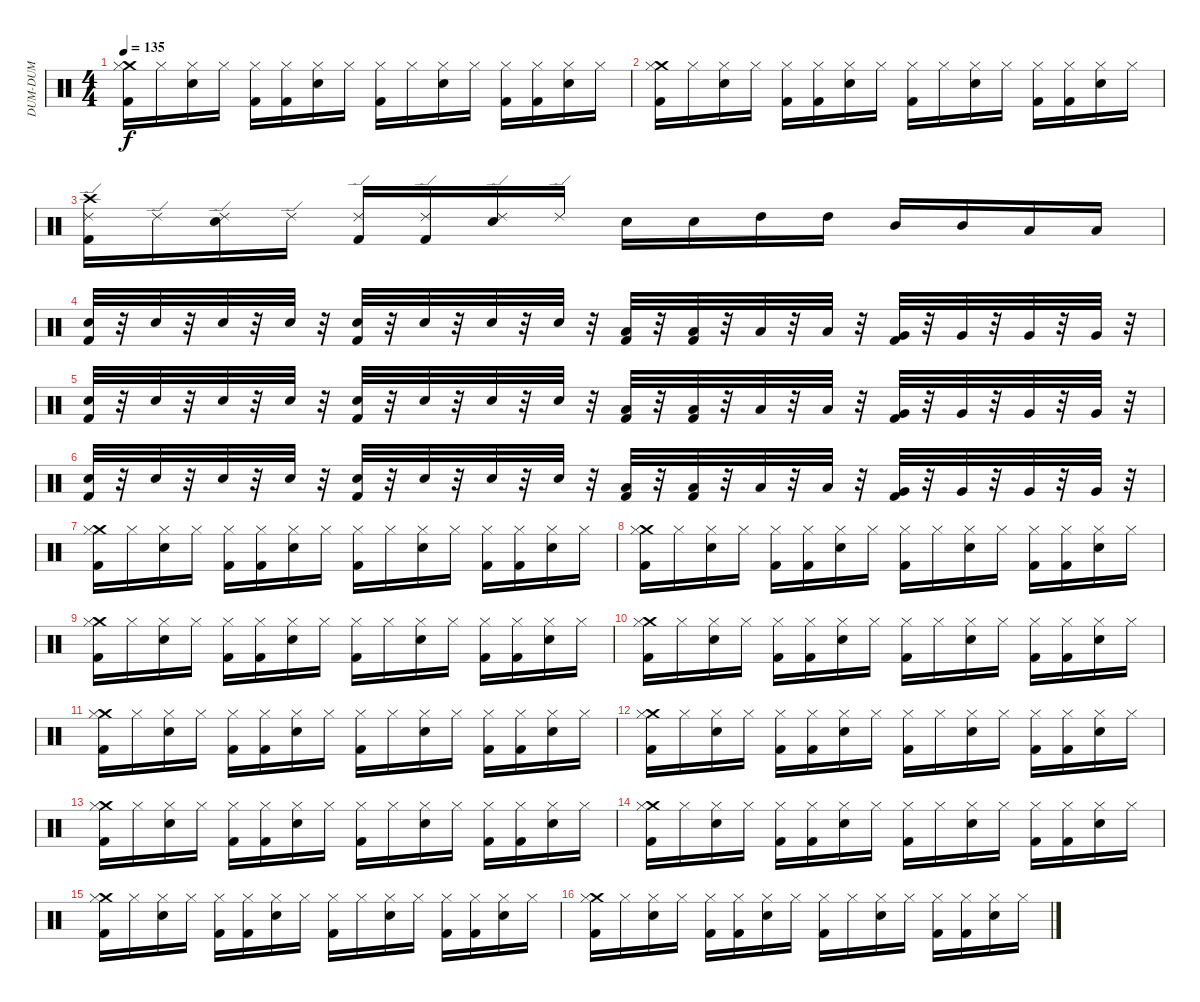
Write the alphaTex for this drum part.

\track ("DUM-DUM" "DUM-DUM") {instrument percussion}
\staff {score}
\articulation defaults
\ts (4 4)
\tempo 135
\clef neutral
\ks c
("Crash medium (hit)" "Hi-Hat (closed)" "Kick (hit) 2").16{dy f} "Hi-Hat (closed)".16 ("Hi-Hat (closed)" "Snare (hit) 2").16 "Hi-Hat (closed)".16 ("Hi-Hat (closed)" "Kick (hit) 2").16 ("Hi-Hat (closed)" "Kick (hit) 2").16 ("Hi-Hat (closed)" "Snare (hit) 2").16 "Hi-Hat (closed)".16 ("Hi-Hat (closed)" "Kick (hit) 2").16 "Hi-Hat (closed)".16 ("Hi-Hat (closed)" "Snare (hit) 2").16 "Hi-Hat (closed)".16 ("Hi-Hat (closed)" "Kick (hit) 2").16 ("Hi-Hat (closed)" "Kick (hit) 2").16 ("Hi-Hat (closed)" "Snare (hit) 2").16 "Hi-Hat (closed)".16 |
("Crash medium (hit)" "Hi-Hat (closed)" "Kick (hit) 2").16 "Hi-Hat (closed)".16 ("Hi-Hat (closed)" "Snare (hit) 2").16 "Hi-Hat (closed)".16 ("Hi-Hat (closed)" "Kick (hit) 2").16 ("Hi-Hat (closed)" "Kick (hit) 2").16 ("Hi-Hat (closed)" "Snare (hit) 2").16 "Hi-Hat (closed)".16 ("Hi-Hat (closed)" "Kick (hit) 2").16 "Hi-Hat (closed)".16 ("Hi-Hat (closed)" "Snare (hit) 2").16 "Hi-Hat (closed)".16 ("Hi-Hat (closed)" "Kick (hit) 2").16 ("Hi-Hat (closed)" "Kick (hit) 2").16 ("Hi-Hat (closed)" "Snare (hit) 2").16 "Hi-Hat (closed)".16 |
("Ride (edge) 2" "Crash high (hit)" "Kick (hit) 2").16 "Ride (edge) 2".16 ("Ride (edge) 2" "Snare (hit) 2").16 "Ride (edge) 2".16 ("Ride (edge) 2" "Kick (hit) 2").16 ("Ride (edge) 2" "Kick (hit) 2").16 ("Ride (edge) 2" "Snare (hit) 2").16 "Ride (edge) 2".16 "Snare (hit) 2".16 "Snare (hit) 2".16 "High Tom (hit)".16 "High Tom (hit)".16 "Mid Tom (hit)".16 "Mid Tom (hit)".16 "Low Tom (hit)".16 "Low Tom (hit)".16 |
("Kick (hit) 2" "Electric Snare (hit)").32 r.32 "Electric Snare (hit)".32 r.32 "Electric Snare (hit)".32 r.32 "Electric Snare (hit)".32 r.32 ("Kick (hit) 2" "Electric Snare (hit)").32 r.32 "Electric Snare (hit)".32 r.32 "Electric Snare (hit)".32 r.32 "Electric Snare (hit)".32 r.32 ("Kick (hit) 2" "Low Tom (hit)").32 r.32 ("Kick (hit) 2" "Low Tom (hit)").32 r.32 "Low Tom (hit)".32 r.32 "Low Tom (hit)".32 r.32 ("Kick (hit) 2" "Very Low Tom (hit)").32 r.32 "Very Low Tom (hit)".32 r.32 "Very Low Tom (hit)".32 r.32 "Very Low Tom (hit)".32 r.32 |
("Kick (hit) 2" "Electric Snare (hit)").32 r.32 "Electric Snare (hit)".32 r.32 "Electric Snare (hit)".32 r.32 "Electric Snare (hit)".32 r.32 ("Kick (hit) 2" "Electric Snare (hit)").32 r.32 "Electric Snare (hit)".32 r.32 "Electric Snare (hit)".32 r.32 "Electric Snare (hit)".32 r.32 ("Kick (hit) 2" "Low Tom (hit)").32 r.32 ("Kick (hit) 2" "Low Tom (hit)").32 r.32 "Low Tom (hit)".32 r.32 "Low Tom (hit)".32 r.32 ("Kick (hit) 2" "Very Low Tom (hit)").32 r.32 "Very Low Tom (hit)".32 r.32 "Very Low Tom (hit)".32 r.32 "Very Low Tom (hit)".32 r.32 |
("Kick (hit) 2" "Electric Snare (hit)").32 r.32 "Electric Snare (hit)".32 r.32 "Electric Snare (hit)".32 r.32 "Electric Snare (hit)".32 r.32 ("Kick (hit) 2" "Electric Snare (hit)").32 r.32 "Electric Snare (hit)".32 r.32 "Electric Snare (hit)".32 r.32 "Electric Snare (hit)".32 r.32 ("Kick (hit) 2" "Low Tom (hit)").32 r.32 ("Kick (hit) 2" "Low Tom (hit)").32 r.32 "Low Tom (hit)".32 r.32 "Low Tom (hit)".32 r.32 ("Kick (hit) 2" "Very Low Tom (hit)").32 r.32 "Very Low Tom (hit)".32 r.32 "Very Low Tom (hit)".32 r.32 "Very Low Tom (hit)".32 r.32 |
("Crash medium (hit)" "Hi-Hat (closed)" "Kick (hit) 2").16 "Hi-Hat (closed)".16 ("Hi-Hat (closed)" "Snare (hit) 2").16 "Hi-Hat (closed)".16 ("Hi-Hat (closed)" "Kick (hit) 2").16 ("Hi-Hat (closed)" "Kick (hit) 2").16 ("Hi-Hat (closed)" "Snare (hit) 2").16 "Hi-Hat (closed)".16 ("Hi-Hat (closed)" "Kick (hit) 2").16 "Hi-Hat (closed)".16 ("Hi-Hat (closed)" "Snare (hit) 2").16 "Hi-Hat (closed)".16 ("Hi-Hat (closed)" "Kick (hit) 2").16 ("Hi-Hat (closed)" "Kick (hit) 2").16 ("Hi-Hat (closed)" "Snare (hit) 2").16 "Hi-Hat (closed)".16 |
("Crash medium (hit)" "Hi-Hat (closed)" "Kick (hit) 2").16 "Hi-Hat (closed)".16 ("Hi-Hat (closed)" "Snare (hit) 2").16 "Hi-Hat (closed)".16 ("Hi-Hat (closed)" "Kick (hit) 2").16 ("Hi-Hat (closed)" "Kick (hit) 2").16 ("Hi-Hat (closed)" "Snare (hit) 2").16 "Hi-Hat (closed)".16 ("Hi-Hat (closed)" "Kick (hit) 2").16 "Hi-Hat (closed)".16 ("Hi-Hat (closed)" "Snare (hit) 2").16 "Hi-Hat (closed)".16 ("Hi-Hat (closed)" "Kick (hit) 2").16 ("Hi-Hat (closed)" "Kick (hit) 2").16 ("Hi-Hat (closed)" "Snare (hit) 2").16 "Hi-Hat (closed)".16 |
("Crash medium (hit)" "Hi-Hat (closed)" "Kick (hit) 2").16 "Hi-Hat (closed)".16 ("Hi-Hat (closed)" "Snare (hit) 2").16 "Hi-Hat (closed)".16 ("Hi-Hat (closed)" "Kick (hit) 2").16 ("Hi-Hat (closed)" "Kick (hit) 2").16 ("Hi-Hat (closed)" "Snare (hit) 2").16 "Hi-Hat (closed)".16 ("Hi-Hat (closed)" "Kick (hit) 2").16 "Hi-Hat (closed)".16 ("Hi-Hat (closed)" "Snare (hit) 2").16 "Hi-Hat (closed)".16 ("Hi-Hat (closed)" "Kick (hit) 2").16 ("Hi-Hat (closed)" "Kick (hit) 2").16 ("Hi-Hat (closed)" "Snare (hit) 2").16 "Hi-Hat (closed)".16 |
("Crash medium (hit)" "Hi-Hat (closed)" "Kick (hit) 2").16 "Hi-Hat (closed)".16 ("Hi-Hat (closed)" "Snare (hit) 2").16 "Hi-Hat (closed)".16 ("Hi-Hat (closed)" "Kick (hit) 2").16 ("Hi-Hat (closed)" "Kick (hit) 2").16 ("Hi-Hat (closed)" "Snare (hit) 2").16 "Hi-Hat (closed)".16 ("Hi-Hat (closed)" "Kick (hit) 2").16 "Hi-Hat (closed)".16 ("Hi-Hat (closed)" "Snare (hit) 2").16 "Hi-Hat (closed)".16 ("Hi-Hat (closed)" "Kick (hit) 2").16 ("Hi-Hat (closed)" "Kick (hit) 2").16 ("Hi-Hat (closed)" "Snare (hit) 2").16 "Hi-Hat (closed)".16 |
("Crash medium (hit)" "Hi-Hat (closed)" "Kick (hit) 2").16 "Hi-Hat (closed)".16 ("Hi-Hat (closed)" "Snare (hit) 2").16 "Hi-Hat (closed)".16 ("Hi-Hat (closed)" "Kick (hit) 2").16 ("Hi-Hat (closed)" "Kick (hit) 2").16 ("Hi-Hat (closed)" "Snare (hit) 2").16 "Hi-Hat (closed)".16 ("Hi-Hat (closed)" "Kick (hit) 2").16 "Hi-Hat (closed)".16 ("Hi-Hat (closed)" "Snare (hit) 2").16 "Hi-Hat (closed)".16 ("Hi-Hat (closed)" "Kick (hit) 2").16 ("Hi-Hat (closed)" "Kick (hit) 2").16 ("Hi-Hat (closed)" "Snare (hit) 2").16 "Hi-Hat (closed)".16 |
("Crash medium (hit)" "Hi-Hat (closed)" "Kick (hit) 2").16 "Hi-Hat (closed)".16 ("Hi-Hat (closed)" "Snare (hit) 2").16 "Hi-Hat (closed)".16 ("Hi-Hat (closed)" "Kick (hit) 2").16 ("Hi-Hat (closed)" "Kick (hit) 2").16 ("Hi-Hat (closed)" "Snare (hit) 2").16 "Hi-Hat (closed)".16 ("Hi-Hat (closed)" "Kick (hit) 2").16 "Hi-Hat (closed)".16 ("Hi-Hat (closed)" "Snare (hit) 2").16 "Hi-Hat (closed)".16 ("Hi-Hat (closed)" "Kick (hit) 2").16 ("Hi-Hat (closed)" "Kick (hit) 2").16 ("Hi-Hat (closed)" "Snare (hit) 2").16 "Hi-Hat (closed)".16 |
("Crash medium (hit)" "Hi-Hat (closed)" "Kick (hit) 2").16 "Hi-Hat (closed)".16 ("Hi-Hat (closed)" "Snare (hit) 2").16 "Hi-Hat (closed)".16 ("Hi-Hat (closed)" "Kick (hit) 2").16 ("Hi-Hat (closed)" "Kick (hit) 2").16 ("Hi-Hat (closed)" "Snare (hit) 2").16 "Hi-Hat (closed)".16 ("Hi-Hat (closed)" "Kick (hit) 2").16 "Hi-Hat (closed)".16 ("Hi-Hat (closed)" "Snare (hit) 2").16 "Hi-Hat (closed)".16 ("Hi-Hat (closed)" "Kick (hit) 2").16 ("Hi-Hat (closed)" "Kick (hit) 2").16 ("Hi-Hat (closed)" "Snare (hit) 2").16 "Hi-Hat (closed)".16 |
("Crash medium (hit)" "Hi-Hat (closed)" "Kick (hit) 2").16 "Hi-Hat (closed)".16 ("Hi-Hat (closed)" "Snare (hit) 2").16 "Hi-Hat (closed)".16 ("Hi-Hat (closed)" "Kick (hit) 2").16 ("Hi-Hat (closed)" "Kick (hit) 2").16 ("Hi-Hat (closed)" "Snare (hit) 2").16 "Hi-Hat (closed)".16 ("Hi-Hat (closed)" "Kick (hit) 2").16 "Hi-Hat (closed)".16 ("Hi-Hat (closed)" "Snare (hit) 2").16 "Hi-Hat (closed)".16 ("Hi-Hat (closed)" "Kick (hit) 2").16 ("Hi-Hat (closed)" "Kick (hit) 2").16 ("Hi-Hat (closed)" "Snare (hit) 2").16 "Hi-Hat (closed)".16 |
("Crash medium (hit)" "Hi-Hat (closed)" "Kick (hit) 2").16 "Hi-Hat (closed)".16 ("Hi-Hat (closed)" "Snare (hit) 2").16 "Hi-Hat (closed)".16 ("Hi-Hat (closed)" "Kick (hit) 2").16 ("Hi-Hat (closed)" "Kick (hit) 2").16 ("Hi-Hat (closed)" "Snare (hit) 2").16 "Hi-Hat (closed)".16 ("Hi-Hat (closed)" "Kick (hit) 2").16 "Hi-Hat (closed)".16 ("Hi-Hat (closed)" "Snare (hit) 2").16 "Hi-Hat (closed)".16 ("Hi-Hat (closed)" "Kick (hit) 2").16 ("Hi-Hat (closed)" "Kick (hit) 2").16 ("Hi-Hat (closed)" "Snare (hit) 2").16 "Hi-Hat (closed)".16 |
("Crash medium (hit)" "Hi-Hat (closed)" "Kick (hit) 2").16 "Hi-Hat (closed)".16 ("Hi-Hat (closed)" "Snare (hit) 2").16 "Hi-Hat (closed)".16 ("Hi-Hat (closed)" "Kick (hit) 2").16 ("Hi-Hat (closed)" "Kick (hit) 2").16 ("Hi-Hat (closed)" "Snare (hit) 2").16 "Hi-Hat (closed)".16 ("Hi-Hat (closed)" "Kick (hit) 2").16 "Hi-Hat (closed)".16 ("Hi-Hat (closed)" "Snare (hit) 2").16 "Hi-Hat (closed)".16 ("Hi-Hat (closed)" "Kick (hit) 2").16 ("Hi-Hat (closed)" "Kick (hit) 2").16 ("Hi-Hat (closed)" "Snare (hit) 2").16 "Hi-Hat (closed)".16
